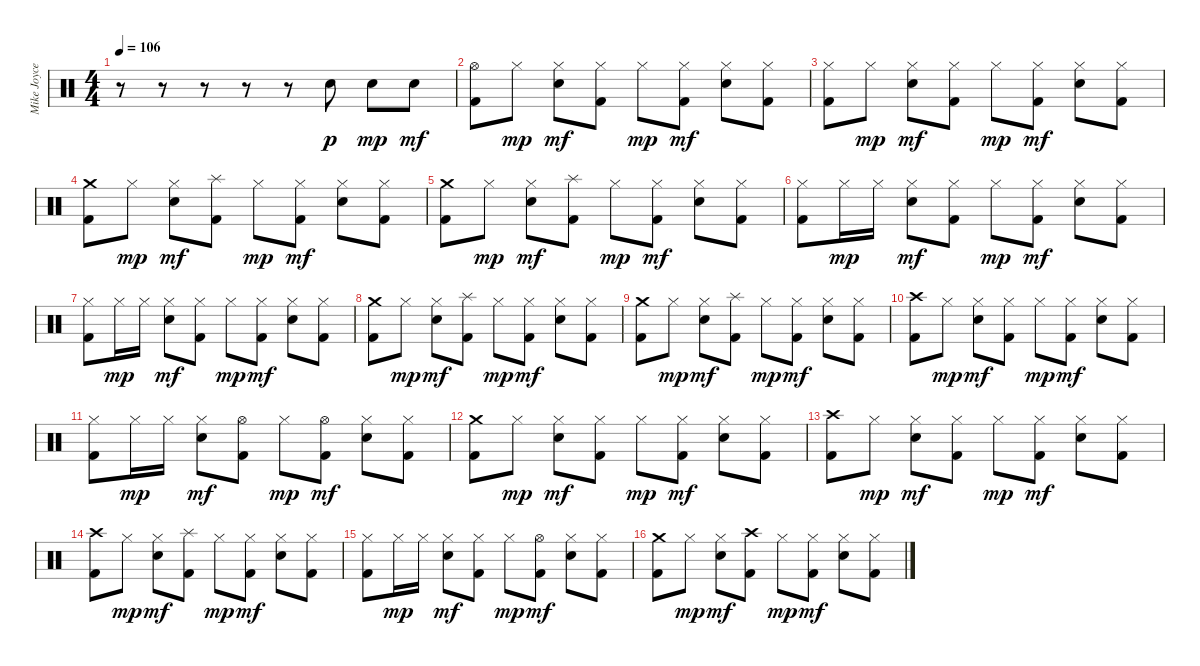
\track ("Mike Joyce" "Mike Joyce") {instrument percussion}
\staff {score}
\articulation defaults
\ts (4 4)
\tempo 106
\clef neutral
\ks c
r.8{dy p} r.8 r.8 r.8 r.8 "Electric Snare (hit)".8 "Electric Snare (hit)".8{dy mp} "Electric Snare (hit)".8{dy mf} |
("Hi-Hat (open)" "Kick (hit) 2").8 "Hi-Hat (closed)".8{dy mp} ("Hi-Hat (closed)" "Electric Snare (hit)").8{dy mf} ("Hi-Hat (closed)" "Kick (hit) 2").8 "Hi-Hat (closed)".8{dy mp} ("Hi-Hat (closed)" "Kick (hit) 2").8{dy mf} ("Hi-Hat (closed)" "Electric Snare (hit)").8 ("Hi-Hat (closed)" "Kick (hit) 2").8 |
("Hi-Hat (closed)" "Kick (hit) 2").8 "Hi-Hat (closed)".8{dy mp} ("Hi-Hat (closed)" "Electric Snare (hit)").8{dy mf} ("Hi-Hat (closed)" "Kick (hit) 2").8 "Hi-Hat (closed)".8{dy mp} ("Hi-Hat (closed)" "Kick (hit) 2").8{dy mf} ("Hi-Hat (closed)" "Electric Snare (hit)").8 ("Hi-Hat (closed)" "Kick (hit) 2").8 |
("Crash medium (hit)" "Kick (hit) 2").8 "Hi-Hat (closed)".8{dy mp} ("Hi-Hat (closed)" "Electric Snare (hit)").8{dy mf} ("Splash (hit)" "Kick (hit) 2").8 "Hi-Hat (closed)".8{dy mp} ("Hi-Hat (closed)" "Kick (hit) 2").8{dy mf} ("Hi-Hat (closed)" "Electric Snare (hit)").8 ("Hi-Hat (closed)" "Kick (hit) 2").8 |
("Crash medium (hit)" "Kick (hit) 2").8 "Hi-Hat (closed)".8{dy mp} ("Hi-Hat (closed)" "Electric Snare (hit)").8{dy mf} ("Splash (hit)" "Kick (hit) 2").8 "Hi-Hat (closed)".8{dy mp} ("Hi-Hat (closed)" "Kick (hit) 2").8{dy mf} ("Hi-Hat (closed)" "Electric Snare (hit)").8 ("Hi-Hat (closed)" "Kick (hit) 2").8 |
("Hi-Hat (closed)" "Kick (hit) 2").8 "Hi-Hat (closed)".16{dy mp} "Hi-Hat (closed)".16 ("Hi-Hat (closed)" "Electric Snare (hit)").8{dy mf} ("Hi-Hat (closed)" "Kick (hit) 2").8 "Hi-Hat (closed)".8{dy mp} ("Hi-Hat (closed)" "Kick (hit) 2").8{dy mf} ("Hi-Hat (closed)" "Electric Snare (hit)").8 ("Hi-Hat (closed)" "Kick (hit) 2").8 |
("Hi-Hat (closed)" "Kick (hit) 2").8 "Hi-Hat (closed)".16{dy mp} "Hi-Hat (closed)".16 ("Hi-Hat (closed)" "Electric Snare (hit)").8{dy mf} ("Hi-Hat (closed)" "Kick (hit) 2").8 "Hi-Hat (closed)".8{dy mp} ("Hi-Hat (closed)" "Kick (hit) 2").8{dy mf} ("Hi-Hat (closed)" "Electric Snare (hit)").8 ("Hi-Hat (closed)" "Kick (hit) 2").8 |
("Crash medium (hit)" "Kick (hit) 2").8 "Hi-Hat (closed)".8{dy mp} ("Hi-Hat (closed)" "Electric Snare (hit)").8{dy mf} ("Splash (hit)" "Kick (hit) 2").8 "Hi-Hat (closed)".8{dy mp} ("Hi-Hat (closed)" "Kick (hit) 2").8{dy mf} ("Hi-Hat (closed)" "Electric Snare (hit)").8 ("Hi-Hat (closed)" "Kick (hit) 2").8 |
("Crash medium (hit)" "Kick (hit) 2").8 "Hi-Hat (closed)".8{dy mp} ("Hi-Hat (closed)" "Electric Snare (hit)").8{dy mf} ("Splash (hit)" "Kick (hit) 2").8 "Hi-Hat (closed)".8{dy mp} ("Hi-Hat (closed)" "Kick (hit) 2").8{dy mf} ("Hi-Hat (closed)" "Electric Snare (hit)").8 ("Hi-Hat (closed)" "Kick (hit) 2").8 |
("Crash high (hit)" "Kick (hit) 2").8 "Hi-Hat (closed)".8{dy mp} ("Hi-Hat (closed)" "Electric Snare (hit)").8{dy mf} ("Hi-Hat (closed)" "Kick (hit) 2").8 "Hi-Hat (closed)".8{dy mp} ("Hi-Hat (closed)" "Kick (hit) 2").8{dy mf} ("Hi-Hat (closed)" "Electric Snare (hit)").8 ("Hi-Hat (closed)" "Kick (hit) 2").8 |
("Hi-Hat (closed)" "Kick (hit) 2").8 "Hi-Hat (closed)".16{dy mp} "Hi-Hat (closed)".16 ("Hi-Hat (closed)" "Electric Snare (hit)").8{dy mf} ("Hi-Hat (open)" "Kick (hit) 2").8 "Hi-Hat (closed)".8{dy mp} ("Hi-Hat (open)" "Kick (hit) 2").8{dy mf} ("Hi-Hat (closed)" "Electric Snare (hit)").8 ("Hi-Hat (closed)" "Kick (hit) 2").8 |
("Crash medium (hit)" "Kick (hit) 2").8 "Hi-Hat (closed)".8{dy mp} ("Hi-Hat (closed)" "Electric Snare (hit)").8{dy mf} ("Hi-Hat (closed)" "Kick (hit) 2").8 "Hi-Hat (closed)".8{dy mp} ("Hi-Hat (closed)" "Kick (hit) 2").8{dy mf} ("Hi-Hat (closed)" "Electric Snare (hit)").8 ("Hi-Hat (closed)" "Kick (hit) 2").8 |
("Crash high (hit)" "Kick (hit) 2").8 "Hi-Hat (closed)".8{dy mp} ("Hi-Hat (closed)" "Electric Snare (hit)").8{dy mf} ("Hi-Hat (closed)" "Kick (hit) 2").8 "Hi-Hat (closed)".8{dy mp} ("Hi-Hat (closed)" "Kick (hit) 2").8{dy mf} ("Hi-Hat (closed)" "Electric Snare (hit)").8 ("Hi-Hat (closed)" "Kick (hit) 2").8 |
("Crash high (hit)" "Kick (hit) 2").8 "Hi-Hat (closed)".8{dy mp} ("Hi-Hat (closed)" "Electric Snare (hit)").8{dy mf} ("Splash (hit)" "Kick (hit) 2").8 "Hi-Hat (closed)".8{dy mp} ("Hi-Hat (closed)" "Kick (hit) 2").8{dy mf} ("Hi-Hat (closed)" "Electric Snare (hit)").8 ("Hi-Hat (closed)" "Kick (hit) 2").8 |
("Hi-Hat (closed)" "Kick (hit) 2").8 "Hi-Hat (closed)".16{dy mp} "Hi-Hat (closed)".16 ("Hi-Hat (closed)" "Electric Snare (hit)").8{dy mf} ("Hi-Hat (closed)" "Kick (hit) 2").8 "Hi-Hat (closed)".8{dy mp} ("Hi-Hat (open)" "Kick (hit) 2").8{dy mf} ("Hi-Hat (closed)" "Electric Snare (hit)").8 ("Hi-Hat (closed)" "Kick (hit) 2").8 |
("Crash medium (hit)" "Kick (hit) 2").8 "Hi-Hat (closed)".8{dy mp} ("Hi-Hat (closed)" "Electric Snare (hit)").8{dy mf} ("Crash high (hit)" "Kick (hit) 2").8 "Hi-Hat (closed)".8{dy mp} ("Hi-Hat (closed)" "Kick (hit) 2").8{dy mf} ("Hi-Hat (closed)" "Electric Snare (hit)").8 ("Hi-Hat (closed)" "Kick (hit) 2").8
